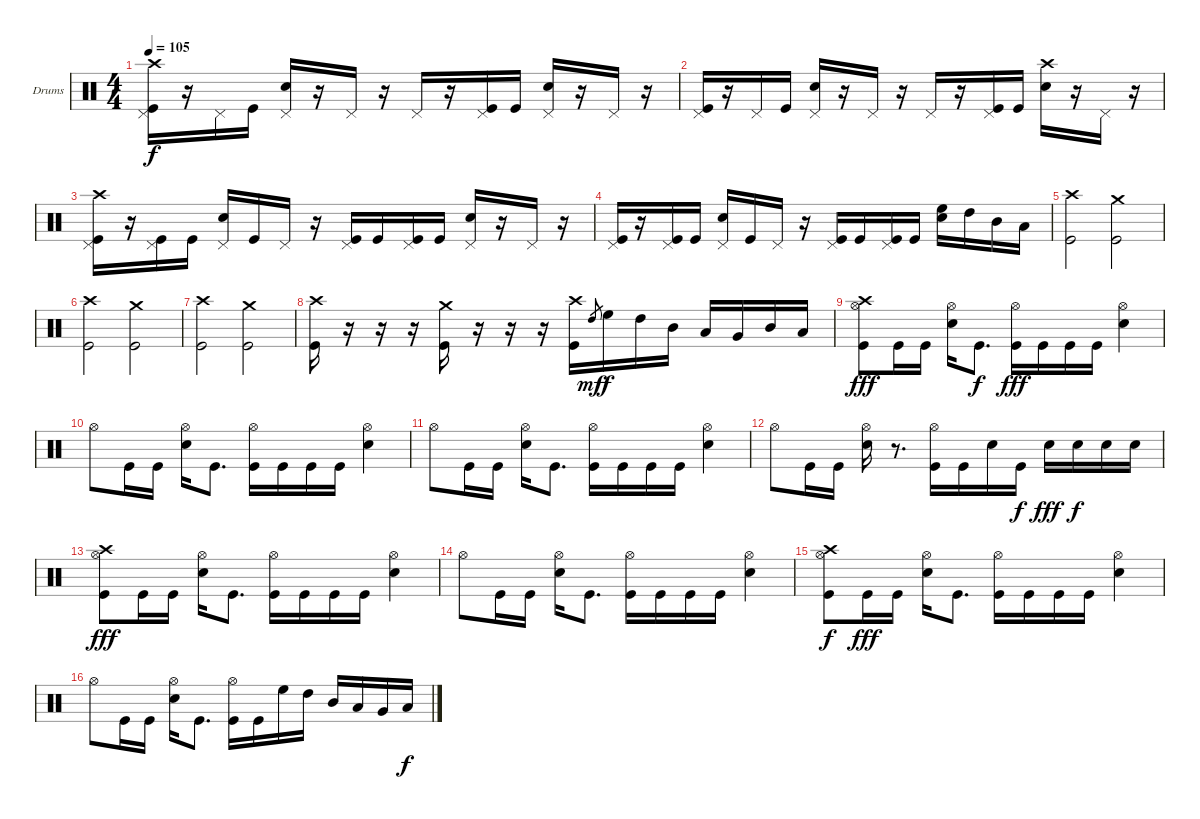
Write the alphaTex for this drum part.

\bracketExtendMode groupsimilarinstruments
\firstSystemTrackNameOrientation horizontal
\otherSystemsTrackNameOrientation horizontal
\track ("Drumkit (Christoph)" "Drums") {instrument percussion}
\staff {score}
\articulation defaults
\ts (4 4)
\tempo 105
\clef neutral
\ks c
("Pedal Hi-Hat (hit)" "Kick (hit)" "Crash high (hit)").16{dy f} r.16 "Pedal Hi-Hat (hit)".16 "Kick (hit)".16 ("Pedal Hi-Hat (hit)" "Snare (hit) 2").16 r.16 "Pedal Hi-Hat (hit)".16 r.16 "Pedal Hi-Hat (hit)".16 r.16 ("Pedal Hi-Hat (hit)" "Kick (hit)").16 "Kick (hit)".16 ("Pedal Hi-Hat (hit)" "Snare (hit) 2").16 r.16 "Pedal Hi-Hat (hit)".16 r.16 |
("Pedal Hi-Hat (hit)" "Kick (hit)").16 r.16 "Pedal Hi-Hat (hit)".16 "Kick (hit)".16 ("Pedal Hi-Hat (hit)" "Snare (hit) 2").16 r.16 "Pedal Hi-Hat (hit)".16 r.16 "Pedal Hi-Hat (hit)".16 r.16 ("Pedal Hi-Hat (hit)" "Kick (hit)").16 "Kick (hit)".16 ("Crash high (hit)" "Snare (hit) 2").16 r.16 "Pedal Hi-Hat (hit)".16 r.16 |
("Crash high (hit)" "Kick (hit)" "Pedal Hi-Hat (hit)").16 r.16 ("Pedal Hi-Hat (hit)" "Kick (hit)").16 "Kick (hit)".16 ("Pedal Hi-Hat (hit)" "Snare (hit) 2").16 "Kick (hit)".16 "Pedal Hi-Hat (hit)".16 r.16 ("Pedal Hi-Hat (hit)" "Kick (hit)").16 "Kick (hit)".16 ("Pedal Hi-Hat (hit)" "Kick (hit)").16 "Kick (hit)".16 ("Pedal Hi-Hat (hit)" "Snare (hit) 2").16 r.16 "Pedal Hi-Hat (hit)".16 r.16 |
("Kick (hit)" "Pedal Hi-Hat (hit)").16 r.16 ("Pedal Hi-Hat (hit)" "Kick (hit)").16 "Kick (hit)".16 ("Pedal Hi-Hat (hit)" "Snare (hit) 2").16 "Kick (hit)".16 "Pedal Hi-Hat (hit)".16 r.16 ("Pedal Hi-Hat (hit)" "Kick (hit)").16 "Kick (hit)".16 ("Pedal Hi-Hat (hit)" "Kick (hit)").16 "Kick (hit)".16 ("Snare (hit) 2" "High Floor Tom (hit)").16 "High Tom (hit)".16 "Mid Tom (hit)".16 "Low Tom (hit)".16 |
("Crash high (hit)" "Kick (hit)").2 ("Crash medium (hit)" "Kick (hit)").2 |
("Crash high (hit)" "Kick (hit)").2 ("Crash medium (hit)" "Kick (hit)").2 |
("Crash high (hit)" "Kick (hit)").2 ("Crash medium (hit)" "Kick (hit)").2 |
("Crash high (hit)" "Kick (hit)").16 r.16 r.16 r.16 ("Crash medium (hit)" "Kick (hit)").16 r.16 r.16 r.16 ("Crash high (hit)" "Kick (hit)").16 "High Tom (hit)".8{gr dy mf} "High Floor Tom (hit)".16{dy f} "High Tom (hit)".16 "Mid Tom (hit)".16 "Low Tom (hit)".16 "Very Low Tom (hit)".16 "Mid Tom (hit)".16 "Low Tom (hit)".16 |
("Crash high (hit)" "Kick (hit)" "Hi-Hat (open)").8{dy fff} "Kick (hit)".16 "Kick (hit)".16 ("Hi-Hat (open)" "Snare (hit) 2").16 "Kick (hit)".8{d dy f} ("Hi-Hat (open)" "Kick (hit)").16{dy fff} "Kick (hit)".16 "Kick (hit)".16 "Kick (hit)".16 ("Hi-Hat (open)" "Snare (hit) 2").4 |
"Hi-Hat (open)".8 "Kick (hit)".16 "Kick (hit)".16 ("Hi-Hat (open)" "Snare (hit) 2").16 "Kick (hit)".8{d} ("Hi-Hat (open)" "Kick (hit)").16 "Kick (hit)".16 "Kick (hit)".16 "Kick (hit)".16 ("Hi-Hat (open)" "Snare (hit) 2").4 |
"Hi-Hat (open)".8 "Kick (hit)".16 "Kick (hit)".16 ("Hi-Hat (open)" "Snare (hit) 2").16 "Kick (hit)".8{d} ("Hi-Hat (open)" "Kick (hit)").16 "Kick (hit)".16 "Kick (hit)".16 "Kick (hit)".16 ("Hi-Hat (open)" "Snare (hit) 2").4 |
"Hi-Hat (open)".8 "Kick (hit)".16 "Kick (hit)".16 ("Hi-Hat (open)" "Snare (hit) 2").16 r.8{d} ("Hi-Hat (open)" "Kick (hit)").16 "Kick (hit)".16 "Snare (hit) 2".16 "Kick (hit)".16{dy f} "Snare (hit) 2".16{dy fff} "Snare (hit) 2".16{dy f} "Snare (hit) 2".16 "Snare (hit) 2".16 |
("Crash high (hit)" "Kick (hit)" "Hi-Hat (open)").8{dy fff} "Kick (hit)".16 "Kick (hit)".16 ("Hi-Hat (open)" "Snare (hit) 2").16 "Kick (hit)".8{d} ("Hi-Hat (open)" "Kick (hit)").16 "Kick (hit)".16 "Kick (hit)".16 "Kick (hit)".16 ("Hi-Hat (open)" "Snare (hit) 2").4 |
"Hi-Hat (open)".8 "Kick (hit)".16 "Kick (hit)".16 ("Hi-Hat (open)" "Snare (hit) 2").16 "Kick (hit)".8{d} ("Hi-Hat (open)" "Kick (hit)").16 "Kick (hit)".16 "Kick (hit)".16 "Kick (hit)".16 ("Hi-Hat (open)" "Snare (hit) 2").4 |
("Crash high (hit)" "Kick (hit)" "Hi-Hat (open)").8{dy f} "Kick (hit)".16{dy fff} "Kick (hit)".16 ("Hi-Hat (open)" "Snare (hit) 2").16 "Kick (hit)".8{d} ("Hi-Hat (open)" "Kick (hit)").16 "Kick (hit)".16 "Kick (hit)".16 "Kick (hit)".16 ("Hi-Hat (open)" "Snare (hit) 2").4 |
"Hi-Hat (open)".8 "Kick (hit)".16 "Kick (hit)".16 ("Hi-Hat (open)" "Snare (hit) 2").16 "Kick (hit)".8{d} ("Hi-Hat (open)" "Kick (hit)").16 "Kick (hit)".16 "High Floor Tom (hit)".16 "High Tom (hit)".16 "Mid Tom (hit)".16 "Low Tom (hit)".16 "Very Low Tom (hit)".16 "Low Tom (hit)".16{dy f}
